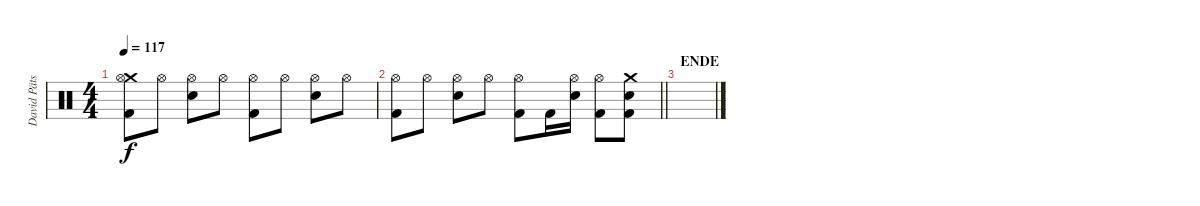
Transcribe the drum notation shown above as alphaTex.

\track ("David Pätsch" "David Päts") {instrument percussion}
\staff {score}
\articulation defaults
\ts (4 4)
\tempo 117
\clef neutral
\ks c
("Crash medium (hit)" "Hi-Hat (open)" "Kick (hit) 2").8{dy f} "Hi-Hat (open)".8 ("Hi-Hat (open)" "Snare (hit) 2").8 "Hi-Hat (open)".8 ("Hi-Hat (open)" "Kick (hit) 2").8 "Hi-Hat (open)".8 ("Hi-Hat (open)" "Snare (hit) 2").8 "Hi-Hat (open)".8 |
\barLineRight lightlight
("Hi-Hat (open)" "Kick (hit) 2").8 "Hi-Hat (open)".8 ("Hi-Hat (open)" "Snare (hit) 2").8 "Hi-Hat (open)".8 ("Hi-Hat (open)" "Kick (hit) 2").8 "Kick (hit) 2".16 ("Hi-Hat (open)" "Snare (hit) 2").16 ("Hi-Hat (open)" "Kick (hit) 2").8 ("Crash medium (hit)" "Snare (hit) 2" "Kick (hit) 2").8 |
\section ("" "ENDE")
